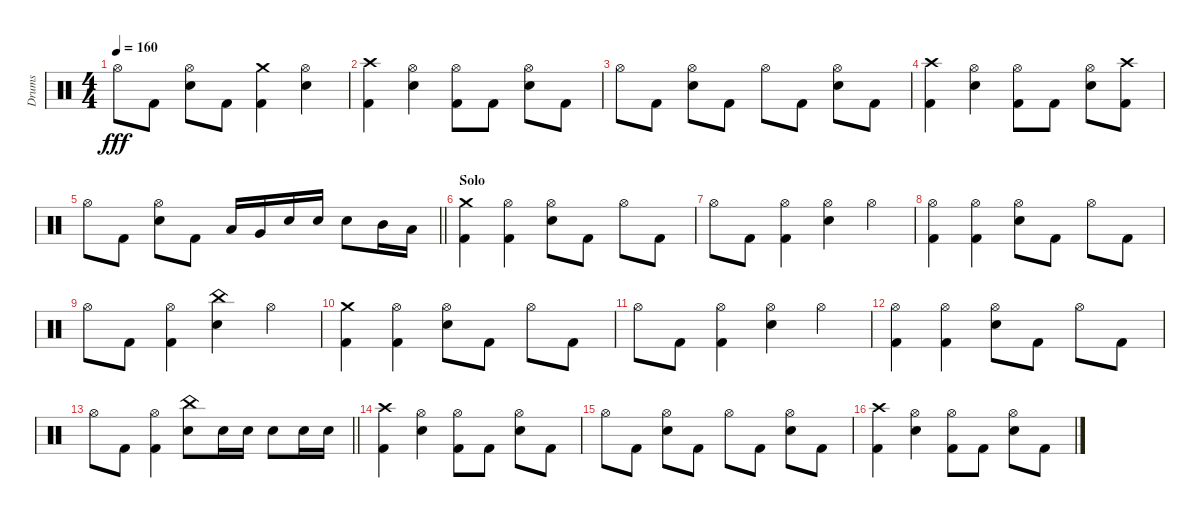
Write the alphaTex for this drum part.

\track ("Drums" "Drums") {instrument percussion}
\staff {score}
\articulation defaults
\ts (4 4)
\tempo 160
\clef neutral
\ks c "Hi-Hat (open)".8{dy fff} "Kick (hit) 2".8
("Snare (hit) 2" "Hi-Hat (open)").8 "Kick (hit) 2".8 ("Crash medium (hit)" "Kick (hit) 2").4 ("Snare (hit) 2" "Hi-Hat (open)").4 |
("Crash high (hit)" "Kick (hit) 2").4 ("Snare (hit) 2" "Hi-Hat (open)").4 ("Hi-Hat (open)" "Kick (hit) 2").8 "Kick (hit) 2".8 ("Snare (hit) 2" "Hi-Hat (open)").8 "Kick (hit) 2".8 |
"Hi-Hat (open)".8 "Kick (hit) 2".8 ("Snare (hit) 2" "Hi-Hat (open)").8 "Kick (hit) 2".8 "Hi-Hat (open)".8 "Kick (hit) 2".8 ("Snare (hit) 2" "Hi-Hat (open)").8 "Kick (hit) 2".8 |
("Crash high (hit)" "Kick (hit) 2").4 ("Snare (hit) 2" "Hi-Hat (open)").4 ("Hi-Hat (open)" "Kick (hit) 2").8 "Kick (hit) 2".8 ("Snare (hit) 2" "Hi-Hat (open)").8 ("Crash high (hit)" "Kick (hit) 2").8 |
\barLineRight lightlight "Hi-Hat (open)".8 "Kick (hit) 2".8
("Snare (hit) 2" "Hi-Hat (open)").8 "Kick (hit) 2".8 "Low Floor Tom (hit)".16 "Very Low Tom (hit)".16 "Snare (hit) 2".16 "Snare (hit) 2".16 "Snare (hit) 2".8 "Mid Tom (hit)".16 "Low Tom (hit)".16 |
\section ("" "Solo")
("Crash medium (hit)" "Kick (hit) 2").4 ("Hi-Hat (open)" "Kick (hit) 2").4 ("Snare (hit) 2" "Hi-Hat (open)").8 "Kick (hit) 2".8 "Hi-Hat (open)".8 "Kick (hit) 2".8 |
"Hi-Hat (open)".8 "Kick (hit) 2".8 ("Hi-Hat (open)" "Kick (hit) 2").4 ("Snare (hit) 2" "Hi-Hat (open)").4 "Hi-Hat (open)".4 |
("Hi-Hat (open)" "Kick (hit) 2").4 ("Hi-Hat (open)" "Kick (hit) 2").4 ("Snare (hit) 2" "Hi-Hat (open)").8 "Kick (hit) 2".8 "Hi-Hat (open)".8 "Kick (hit) 2".8 |
"Hi-Hat (open)".8 "Kick (hit) 2".8 ("Hi-Hat (open)" "Kick (hit) 2").4 ("China (hit)" "Snare (hit) 2").4 "Hi-Hat (open)".4 |
("Crash medium (hit)" "Kick (hit) 2").4 ("Hi-Hat (open)" "Kick (hit) 2").4 ("Snare (hit) 2" "Hi-Hat (open)").8 "Kick (hit) 2".8 "Hi-Hat (open)".8 "Kick (hit) 2".8 |
"Hi-Hat (open)".8 "Kick (hit) 2".8 ("Hi-Hat (open)" "Kick (hit) 2").4 ("Snare (hit) 2" "Hi-Hat (open)").4 "Hi-Hat (open)".4 |
("Hi-Hat (open)" "Kick (hit) 2").4 ("Hi-Hat (open)" "Kick (hit) 2").4 ("Snare (hit) 2" "Hi-Hat (open)").8 "Kick (hit) 2".8 "Hi-Hat (open)".8 "Kick (hit) 2".8 |
\barLineRight lightlight "Hi-Hat (open)".8 "Kick (hit) 2".8
("Hi-Hat (open)" "Kick (hit) 2").4 ("China (hit)" "Snare (hit) 2").8 "Snare (hit) 2".16 "Snare (hit) 2".16 "Snare (hit) 2".8 "Snare (hit) 2".16 "Snare (hit) 2".16 |
\section ("" "")
("Crash high (hit)" "Kick (hit) 2").4 ("Snare (hit) 2" "Hi-Hat (open)").4 ("Hi-Hat (open)" "Kick (hit) 2").8 "Kick (hit) 2".8 ("Snare (hit) 2" "Hi-Hat (open)").8 "Kick (hit) 2".8 |
"Hi-Hat (open)".8 "Kick (hit) 2".8 ("Snare (hit) 2" "Hi-Hat (open)").8 "Kick (hit) 2".8 "Hi-Hat (open)".8 "Kick (hit) 2".8 ("Snare (hit) 2" "Hi-Hat (open)").8 "Kick (hit) 2".8 |
("Crash high (hit)" "Kick (hit) 2").4 ("Snare (hit) 2" "Hi-Hat (open)").4 ("Hi-Hat (open)" "Kick (hit) 2").8 "Kick (hit) 2".8 ("Snare (hit) 2" "Hi-Hat (open)").8 "Kick (hit) 2".8
